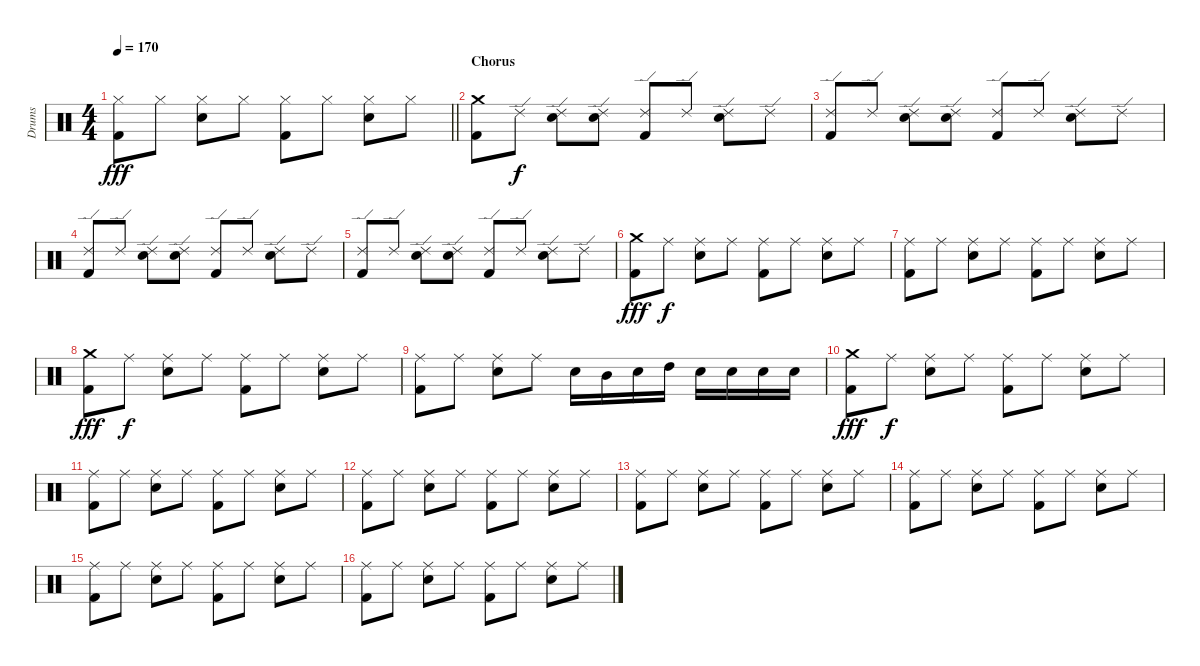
\track ("Drums" "Drums") {instrument percussion}
\staff {score}
\articulation defaults
\ts (4 4)
\tempo 170
\clef neutral
\barLineRight lightlight
\ks c
("Hi-Hat (closed)" "Kick (hit) 2").8{dy fff} "Hi-Hat (closed)".8 ("Hi-Hat (closed)" "Electric Snare (hit)").8 "Hi-Hat (closed)".8 ("Hi-Hat (closed)" "Kick (hit) 2").8 "Hi-Hat (closed)".8 ("Hi-Hat (closed)" "Electric Snare (hit)").8 "Hi-Hat (closed)".8 |
\section ("" "Chorus")
("Crash medium (hit)" "Kick (hit) 2").8 "Ride (edge) 2".8{dy f} ("Ride (edge) 2" "Electric Snare (hit)").8 ("Ride (edge) 2" "Electric Snare (hit)").8 ("Ride (edge) 2" "Kick (hit) 2").8 "Ride (edge) 2".8 ("Ride (edge) 2" "Electric Snare (hit)").8 "Ride (edge) 2".8 |
("Ride (edge) 2" "Kick (hit) 2").8 "Ride (edge) 2".8 ("Ride (edge) 2" "Electric Snare (hit)").8 ("Ride (edge) 2" "Electric Snare (hit)").8 ("Ride (edge) 2" "Kick (hit) 2").8 "Ride (edge) 2".8 ("Ride (edge) 2" "Electric Snare (hit)").8 "Ride (edge) 2".8 |
("Ride (edge) 2" "Kick (hit) 2").8 "Ride (edge) 2".8 ("Ride (edge) 2" "Electric Snare (hit)").8 ("Ride (edge) 2" "Electric Snare (hit)").8 ("Ride (edge) 2" "Kick (hit) 2").8 "Ride (edge) 2".8 ("Ride (edge) 2" "Electric Snare (hit)").8 "Ride (edge) 2".8 |
("Ride (edge) 2" "Kick (hit) 2").8 "Ride (edge) 2".8 ("Ride (edge) 2" "Electric Snare (hit)").8 ("Ride (edge) 2" "Electric Snare (hit)").8 ("Ride (edge) 2" "Kick (hit) 2").8 "Ride (edge) 2".8 ("Ride (edge) 2" "Electric Snare (hit)").8 "Ride (edge) 2".8 |
("Crash medium (hit)" "Kick (hit) 2").8{dy fff} "Ride (middle)".8{dy f} ("Ride (middle)" "Electric Snare (hit)").8 "Ride (middle)".8 ("Ride (middle)" "Kick (hit) 2").8 "Ride (middle)".8 ("Ride (middle)" "Electric Snare (hit)").8 "Ride (middle)".8 |
("Ride (middle)" "Kick (hit) 2").8 "Ride (middle)".8 ("Ride (middle)" "Electric Snare (hit)").8 "Ride (middle)".8 ("Ride (middle)" "Kick (hit) 2").8 "Ride (middle)".8 ("Ride (middle)" "Electric Snare (hit)").8 "Ride (middle)".8 |
("Crash medium (hit)" "Kick (hit) 2").8{dy fff} "Ride (middle)".8{dy f} ("Ride (middle)" "Electric Snare (hit)").8 "Ride (middle)".8 ("Ride (middle)" "Kick (hit) 2").8 "Ride (middle)".8 ("Ride (middle)" "Electric Snare (hit)").8 "Ride (middle)".8 |
("Ride (middle)" "Kick (hit) 2").8 "Ride (middle)".8 ("Ride (middle)" "Electric Snare (hit)").8 "Ride (middle)".8 "Electric Snare (hit)".16 "Mid Tom (hit)".16 "Electric Snare (hit)".16 "High Tom (hit)".16 "Electric Snare (hit)".16 "Electric Snare (hit)".16 "Electric Snare (hit)".16 "Electric Snare (hit)".16 |
("Crash medium (hit)" "Kick (hit) 2").8{dy fff} "Ride (middle)".8{dy f} ("Ride (middle)" "Electric Snare (hit)").8 "Ride (middle)".8 ("Ride (middle)" "Kick (hit) 2").8 "Ride (middle)".8 ("Ride (middle)" "Electric Snare (hit)").8 "Ride (middle)".8 |
("Ride (middle)" "Kick (hit) 2").8 "Ride (middle)".8 ("Ride (middle)" "Electric Snare (hit)").8 "Ride (middle)".8 ("Ride (middle)" "Kick (hit) 2").8 "Ride (middle)".8 ("Ride (middle)" "Electric Snare (hit)").8 "Ride (middle)".8 |
("Ride (middle)" "Kick (hit) 2").8 "Ride (middle)".8 ("Ride (middle)" "Electric Snare (hit)").8 "Ride (middle)".8 ("Ride (middle)" "Kick (hit) 2").8 "Ride (middle)".8 ("Ride (middle)" "Electric Snare (hit)").8 "Ride (middle)".8 |
("Ride (middle)" "Kick (hit) 2").8 "Ride (middle)".8 ("Ride (middle)" "Electric Snare (hit)").8 "Ride (middle)".8 ("Ride (middle)" "Kick (hit) 2").8 "Ride (middle)".8 ("Ride (middle)" "Electric Snare (hit)").8 "Ride (middle)".8 |
("Ride (middle)" "Kick (hit) 2").8 "Ride (middle)".8 ("Ride (middle)" "Electric Snare (hit)").8 "Ride (middle)".8 ("Ride (middle)" "Kick (hit) 2").8 "Ride (middle)".8 ("Ride (middle)" "Electric Snare (hit)").8 "Ride (middle)".8 |
("Ride (middle)" "Kick (hit) 2").8 "Ride (middle)".8 ("Ride (middle)" "Electric Snare (hit)").8 "Ride (middle)".8 ("Ride (middle)" "Kick (hit) 2").8 "Ride (middle)".8 ("Ride (middle)" "Electric Snare (hit)").8 "Ride (middle)".8 |
("Ride (middle)" "Kick (hit) 2").8 "Ride (middle)".8 ("Ride (middle)" "Electric Snare (hit)").8 "Ride (middle)".8 ("Ride (middle)" "Kick (hit) 2").8 "Ride (middle)".8 ("Ride (middle)" "Electric Snare (hit)").8 "Ride (middle)".8
